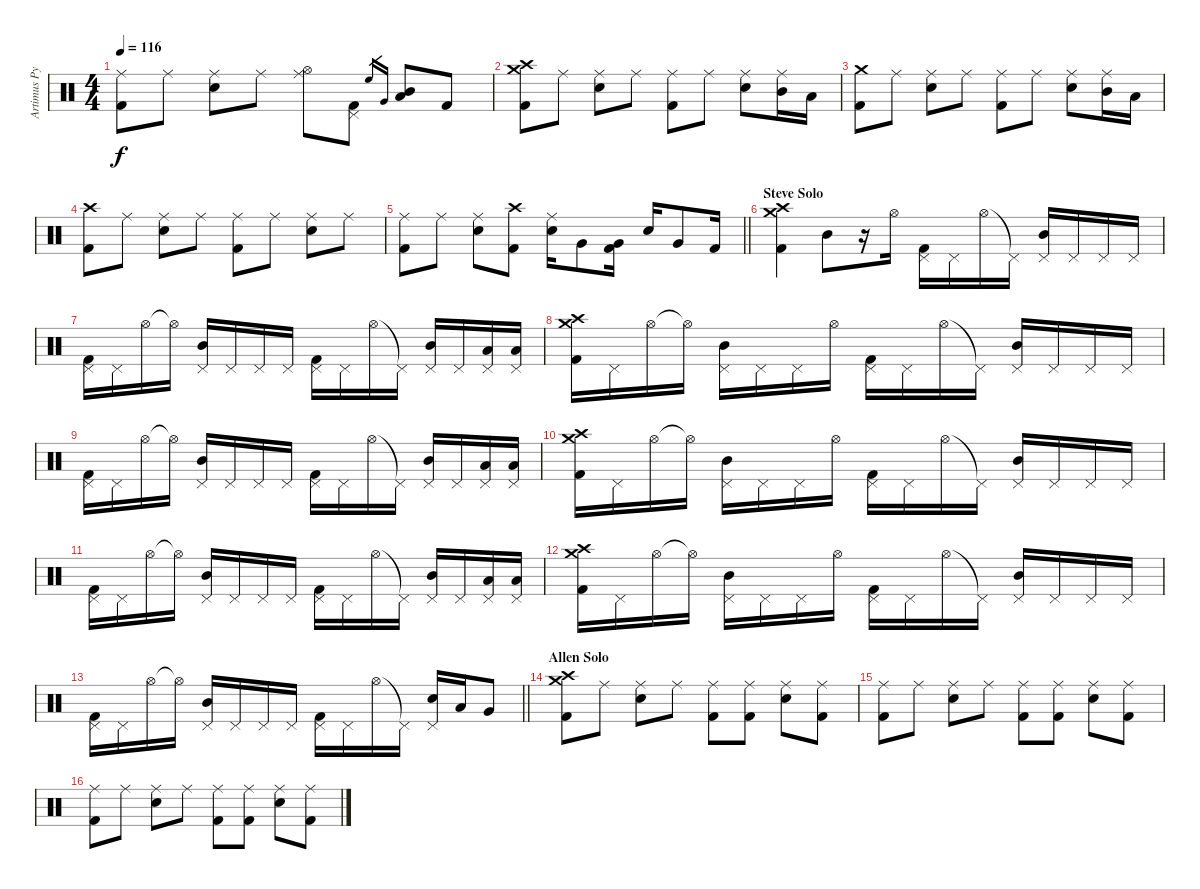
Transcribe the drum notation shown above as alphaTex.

\track ("Artimus Pyle - Drums and Percussion" "Artimus Py") {instrument percussion}
\staff {score}
\articulation defaults
\ts (4 4)
\tempo 116
\clef neutral
\ks c
("Ride (middle)" "Kick (hit) 2").8{dy f} "Ride (middle)".8 ("Ride (middle)" "Snare (hit) 2").8 "Ride (middle)".8 ("Ride (middle)" "Hi-Hat (open)").8 ("Pedal Hi-Hat (hit)" "Kick (hit) 2").8 "High Floor Tom (hit)".16{gr} "Very Low Tom (hit)".16{gr} ("Mid Tom (hit)" "Low Floor Tom (hit)").8 "Kick (hit) 2".8 |
("Crash medium (hit)" "Crash high (hit)" "Kick (hit) 2").8 "Ride (middle)".8 ("Ride (middle)" "Snare (hit) 2").8 "Ride (middle)".8 ("Ride (middle)" "Kick (hit) 2").8 "Ride (middle)".8 ("Ride (middle)" "Snare (hit) 2").8 ("Ride (middle)" "Mid Tom (hit)").16 "Low Floor Tom (hit)".16 |
("Crash medium (hit)" "Kick (hit) 2").8 "Ride (middle)".8 ("Ride (middle)" "Snare (hit) 2").8 "Ride (middle)".8 ("Ride (middle)" "Kick (hit) 2").8 "Ride (middle)".8 ("Ride (middle)" "Snare (hit) 2").8 ("Ride (middle)" "Mid Tom (hit)").16 "Low Floor Tom (hit)".16 |
("Crash high (hit)" "Kick (hit) 2").8 "Ride (middle)".8 ("Ride (middle)" "Snare (hit) 2").8 "Ride (middle)".8 ("Ride (middle)" "Kick (hit) 2").8 "Ride (middle)".8 ("Ride (middle)" "Snare (hit) 2").8 "Ride (middle)".8 |
\barLineRight lightlight
("Ride (middle)" "Kick (hit) 2").8 "Ride (middle)".8 ("Ride (middle)" "Snare (hit) 2").8 ("Crash high (hit)" "Kick (hit) 2").8 ("Ride (middle)" "Snare (hit) 2").16 "Very Low Tom (hit)".8 ("Very Low Tom (hit)" "Kick (hit) 2").16 "Snare (hit) 2".16 "Very Low Tom (hit)".8 "Kick (hit) 2".16 |
\section ("" "Steve Solo")
("Crash medium (hit)" "Crash high (hit)" "Kick (hit) 2").4 "Mid Tom (hit)".8 r.16 "Hi-Hat (open)".16 ("Pedal Hi-Hat (hit)" "Kick (hit) 2").16 "Pedal Hi-Hat (hit)".16 "Hi-Hat (open)".16 "Pedal Hi-Hat (hit)"{t}.16 ("Pedal Hi-Hat (hit)" "Mid Tom (hit)").16 "Pedal Hi-Hat (hit)".16 "Pedal Hi-Hat (hit)".16 "Pedal Hi-Hat (hit)".16 |
("Pedal Hi-Hat (hit)" "Kick (hit) 2").16 "Pedal Hi-Hat (hit)".16 "Hi-Hat (open)".16 "Hi-Hat (open)"{t}.16 ("Pedal Hi-Hat (hit)" "Mid Tom (hit)").16 "Pedal Hi-Hat (hit)".16 "Pedal Hi-Hat (hit)".16 "Pedal Hi-Hat (hit)".16 ("Pedal Hi-Hat (hit)" "Kick (hit) 2").16 "Pedal Hi-Hat (hit)".16 "Hi-Hat (open)".16 "Pedal Hi-Hat (hit)"{t}.16 ("Pedal Hi-Hat (hit)" "Mid Tom (hit)").16 "Pedal Hi-Hat (hit)".16 ("Pedal Hi-Hat (hit)" "Low Floor Tom (hit)").16 ("Pedal Hi-Hat (hit)" "Low Floor Tom (hit)").16 |
("Crash high (hit)" "Crash medium (hit)" "Kick (hit) 2").16 "Pedal Hi-Hat (hit)".16 "Hi-Hat (open)".16 "Hi-Hat (open)"{t}.16 ("Pedal Hi-Hat (hit)" "Mid Tom (hit)").16 "Pedal Hi-Hat (hit)".16 "Pedal Hi-Hat (hit)".16 "Hi-Hat (open)".16 ("Pedal Hi-Hat (hit)" "Kick (hit) 2").16 "Pedal Hi-Hat (hit)".16 "Hi-Hat (open)".16 "Pedal Hi-Hat (hit)"{t}.16 ("Pedal Hi-Hat (hit)" "Mid Tom (hit)").16 "Pedal Hi-Hat (hit)".16 "Pedal Hi-Hat (hit)".16 "Pedal Hi-Hat (hit)".16 |
("Pedal Hi-Hat (hit)" "Kick (hit) 2").16 "Pedal Hi-Hat (hit)".16 "Hi-Hat (open)".16 "Hi-Hat (open)"{t}.16 ("Pedal Hi-Hat (hit)" "Mid Tom (hit)").16 "Pedal Hi-Hat (hit)".16 "Pedal Hi-Hat (hit)".16 "Pedal Hi-Hat (hit)".16 ("Pedal Hi-Hat (hit)" "Kick (hit) 2").16 "Pedal Hi-Hat (hit)".16 "Hi-Hat (open)".16 "Pedal Hi-Hat (hit)"{t}.16 ("Pedal Hi-Hat (hit)" "Mid Tom (hit)").16 "Pedal Hi-Hat (hit)".16 ("Pedal Hi-Hat (hit)" "Low Floor Tom (hit)").16 ("Pedal Hi-Hat (hit)" "Low Floor Tom (hit)").16 |
("Crash high (hit)" "Crash medium (hit)" "Kick (hit) 2").16 "Pedal Hi-Hat (hit)".16 "Hi-Hat (open)".16 "Hi-Hat (open)"{t}.16 ("Pedal Hi-Hat (hit)" "Mid Tom (hit)").16 "Pedal Hi-Hat (hit)".16 "Pedal Hi-Hat (hit)".16 "Hi-Hat (open)".16 ("Pedal Hi-Hat (hit)" "Kick (hit) 2").16 "Pedal Hi-Hat (hit)".16 "Hi-Hat (open)".16 "Pedal Hi-Hat (hit)"{t}.16 ("Pedal Hi-Hat (hit)" "Mid Tom (hit)").16 "Pedal Hi-Hat (hit)".16 "Pedal Hi-Hat (hit)".16 "Pedal Hi-Hat (hit)".16 |
("Pedal Hi-Hat (hit)" "Kick (hit) 2").16 "Pedal Hi-Hat (hit)".16 "Hi-Hat (open)".16 "Hi-Hat (open)"{t}.16 ("Pedal Hi-Hat (hit)" "Mid Tom (hit)").16 "Pedal Hi-Hat (hit)".16 "Pedal Hi-Hat (hit)".16 "Pedal Hi-Hat (hit)".16 ("Pedal Hi-Hat (hit)" "Kick (hit) 2").16 "Pedal Hi-Hat (hit)".16 "Hi-Hat (open)".16 "Pedal Hi-Hat (hit)"{t}.16 ("Pedal Hi-Hat (hit)" "Mid Tom (hit)").16 "Pedal Hi-Hat (hit)".16 ("Pedal Hi-Hat (hit)" "Low Floor Tom (hit)").16 ("Pedal Hi-Hat (hit)" "Low Floor Tom (hit)").16 |
("Crash high (hit)" "Crash medium (hit)" "Kick (hit) 2").16 "Pedal Hi-Hat (hit)".16 "Hi-Hat (open)".16 "Hi-Hat (open)"{t}.16 ("Pedal Hi-Hat (hit)" "Mid Tom (hit)").16 "Pedal Hi-Hat (hit)".16 "Pedal Hi-Hat (hit)".16 "Hi-Hat (open)".16 ("Pedal Hi-Hat (hit)" "Kick (hit) 2").16 "Pedal Hi-Hat (hit)".16 "Hi-Hat (open)".16 "Pedal Hi-Hat (hit)"{t}.16 ("Pedal Hi-Hat (hit)" "Mid Tom (hit)").16 "Pedal Hi-Hat (hit)".16 "Pedal Hi-Hat (hit)".16 "Pedal Hi-Hat (hit)".16 |
\barLineRight lightlight
("Pedal Hi-Hat (hit)" "Kick (hit) 2").16 "Pedal Hi-Hat (hit)".16 "Hi-Hat (open)".16 "Hi-Hat (open)"{t}.16 ("Pedal Hi-Hat (hit)" "Mid Tom (hit)").16 "Pedal Hi-Hat (hit)".16 "Pedal Hi-Hat (hit)".16 "Pedal Hi-Hat (hit)".16 ("Pedal Hi-Hat (hit)" "Kick (hit) 2").16 "Pedal Hi-Hat (hit)".16 "Hi-Hat (open)".16 "Pedal Hi-Hat (hit)"{t}.16 ("Snare (hit) 2" "Pedal Hi-Hat (hit)").16 "Low Tom (hit)".16 "Very Low Tom (hit)".8 |
\section ("" "Allen Solo")
("Crash medium (hit)" "Crash high (hit)" "Kick (hit) 2").8 "Ride (middle)".8 ("Ride (middle)" "Snare (hit) 2").8 "Ride (middle)".8 ("Ride (middle)" "Kick (hit) 2").8 ("Ride (middle)" "Kick (hit) 2").8 ("Ride (middle)" "Snare (hit) 2").8 ("Ride (middle)" "Kick (hit) 2").8 |
("Ride (middle)" "Kick (hit) 2").8 "Ride (middle)".8 ("Ride (middle)" "Snare (hit) 2").8 "Ride (middle)".8 ("Ride (middle)" "Kick (hit) 2").8 ("Ride (middle)" "Kick (hit) 2").8 ("Ride (middle)" "Snare (hit) 2").8 ("Ride (middle)" "Kick (hit) 2").8 |
("Ride (middle)" "Kick (hit) 2").8 "Ride (middle)".8 ("Ride (middle)" "Snare (hit) 2").8 "Ride (middle)".8 ("Ride (middle)" "Kick (hit) 2").8 ("Ride (middle)" "Kick (hit) 2").8 ("Ride (middle)" "Snare (hit) 2").8 ("Ride (middle)" "Kick (hit) 2").8
